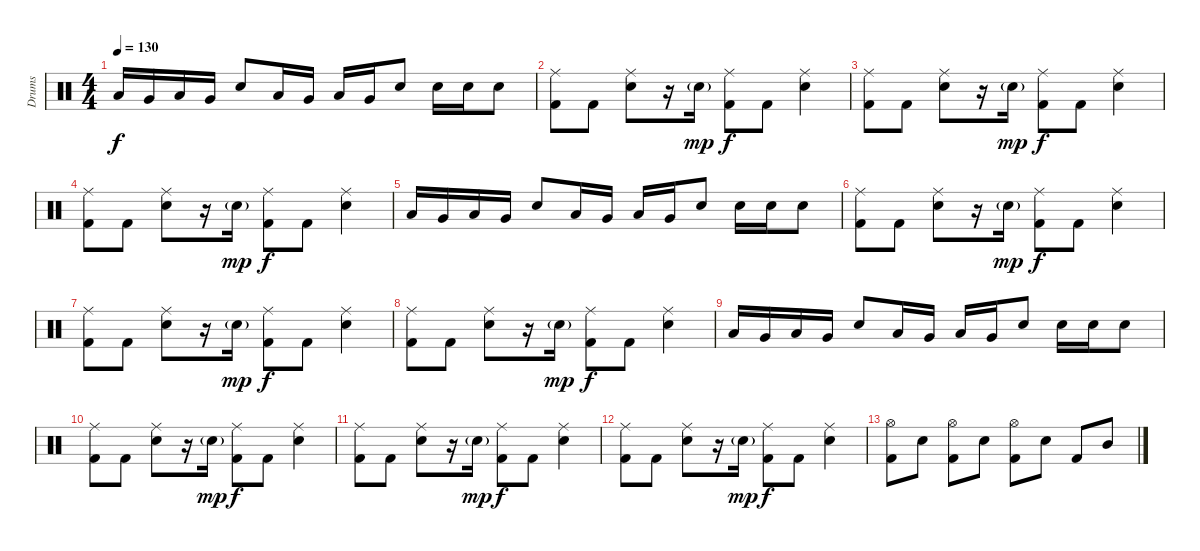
\track ("Drums" "Drums") {instrument percussion}
\staff {score}
\articulation defaults
\ts (4 4)
\tempo 130
\clef neutral
\ks c "Low Tom (hit)".16{dy f} "Very Low Tom (hit)".16 "Low Tom (hit)".16 "Very Low Tom (hit)".16 "Electric Snare (hit)".8 "Low Tom (hit)".16 "Very Low Tom (hit)".16 "Low Tom (hit)".16 "Very Low Tom (hit)".16 "Electric Snare (hit)".8 "Electric Snare (hit)".16 "Electric Snare (hit)".16 "Electric Snare (hit)".8
|
("Ride (middle)" "Kick (hit) 2").8 "Kick (hit) 2".8 ("Ride (middle)" "Electric Snare (hit)").8 r.16 "Electric Snare (hit)"{g}.16{dy mp} ("Ride (middle)" "Kick (hit) 2").8{dy f} "Kick (hit) 2".8 ("Ride (middle)" "Electric Snare (hit)").4 |
("Ride (middle)" "Kick (hit) 2").8 "Kick (hit) 2".8 ("Ride (middle)" "Electric Snare (hit)").8 r.16 "Electric Snare (hit)"{g}.16{dy mp} ("Ride (middle)" "Kick (hit) 2").8{dy f} "Kick (hit) 2".8 ("Ride (middle)" "Electric Snare (hit)").4 |
("Ride (middle)" "Kick (hit) 2").8 "Kick (hit) 2".8 ("Ride (middle)" "Electric Snare (hit)").8 r.16 "Electric Snare (hit)"{g}.16{dy mp} ("Ride (middle)" "Kick (hit) 2").8{dy f} "Kick (hit) 2".8 ("Ride (middle)" "Electric Snare (hit)").4 |
"Low Tom (hit)".16 "Very Low Tom (hit)".16 "Low Tom (hit)".16 "Very Low Tom (hit)".16 "Electric Snare (hit)".8 "Low Tom (hit)".16 "Very Low Tom (hit)".16 "Low Tom (hit)".16 "Very Low Tom (hit)".16 "Electric Snare (hit)".8 "Electric Snare (hit)".16 "Electric Snare (hit)".16 "Electric Snare (hit)".8 |
("Ride (middle)" "Kick (hit) 2").8 "Kick (hit) 2".8 ("Ride (middle)" "Electric Snare (hit)").8 r.16 "Electric Snare (hit)"{g}.16{dy mp} ("Ride (middle)" "Kick (hit) 2").8{dy f} "Kick (hit) 2".8 ("Ride (middle)" "Electric Snare (hit)").4 |
("Ride (middle)" "Kick (hit) 2").8 "Kick (hit) 2".8 ("Ride (middle)" "Electric Snare (hit)").8 r.16 "Electric Snare (hit)"{g}.16{dy mp} ("Ride (middle)" "Kick (hit) 2").8{dy f} "Kick (hit) 2".8 ("Ride (middle)" "Electric Snare (hit)").4 |
("Ride (middle)" "Kick (hit) 2").8 "Kick (hit) 2".8 ("Ride (middle)" "Electric Snare (hit)").8 r.16 "Electric Snare (hit)"{g}.16{dy mp} ("Ride (middle)" "Kick (hit) 2").8{dy f} "Kick (hit) 2".8 ("Ride (middle)" "Electric Snare (hit)").4 |
"Low Tom (hit)".16 "Very Low Tom (hit)".16 "Low Tom (hit)".16 "Very Low Tom (hit)".16 "Electric Snare (hit)".8 "Low Tom (hit)".16 "Very Low Tom (hit)".16 "Low Tom (hit)".16 "Very Low Tom (hit)".16 "Electric Snare (hit)".8 "Electric Snare (hit)".16 "Electric Snare (hit)".16 "Electric Snare (hit)".8 |
("Ride (middle)" "Kick (hit) 2").8 "Kick (hit) 2".8 ("Ride (middle)" "Electric Snare (hit)").8 r.16 "Electric Snare (hit)"{g}.16{dy mp} ("Ride (middle)" "Kick (hit) 2").8{dy f} "Kick (hit) 2".8 ("Ride (middle)" "Electric Snare (hit)").4 |
("Ride (middle)" "Kick (hit) 2").8 "Kick (hit) 2".8 ("Ride (middle)" "Electric Snare (hit)").8 r.16 "Electric Snare (hit)"{g}.16{dy mp} ("Ride (middle)" "Kick (hit) 2").8{dy f} "Kick (hit) 2".8 ("Ride (middle)" "Electric Snare (hit)").4 |
("Ride (middle)" "Kick (hit) 2").8 "Kick (hit) 2".8 ("Ride (middle)" "Electric Snare (hit)").8 r.16 "Electric Snare (hit)"{g}.16{dy mp} ("Ride (middle)" "Kick (hit) 2").8{dy f} "Kick (hit) 2".8 ("Ride (middle)" "Electric Snare (hit)").4 |
("Hi-Hat (open)" "Kick (hit) 2").8 "Electric Snare (hit)".8 ("Hi-Hat (open)" "Kick (hit) 2").8 "Electric Snare (hit)".8 ("Hi-Hat (open)" "Kick (hit) 2").8 "Electric Snare (hit)".8 "Kick (hit) 2".8 "Mid Tom (hit)".8
